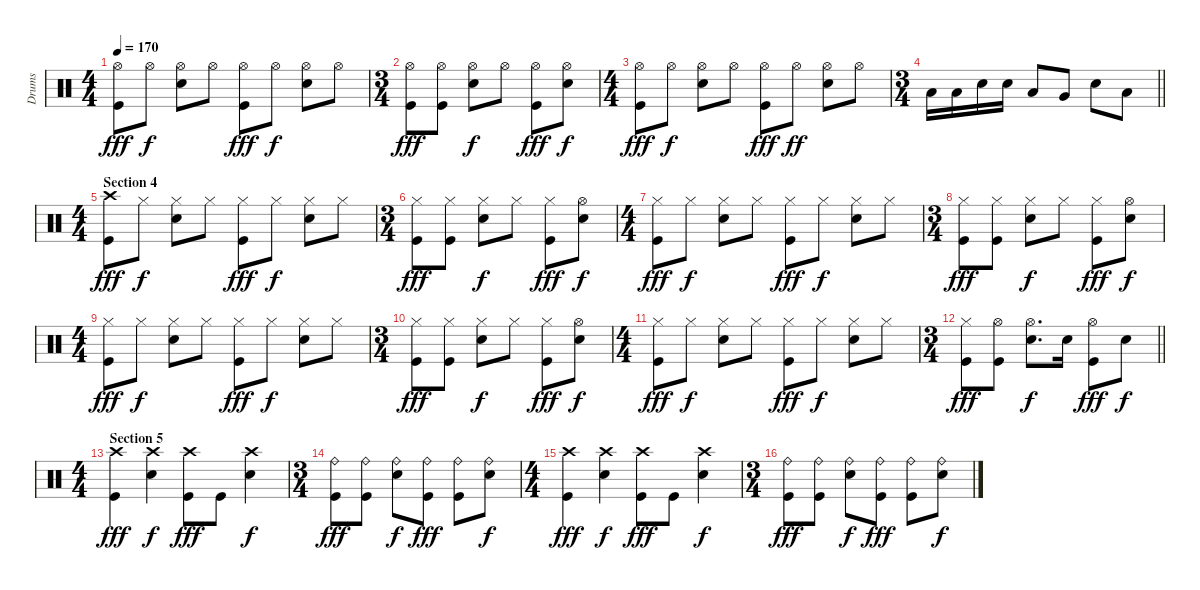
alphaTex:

\track ("Drums" "Drums") {instrument percussion}
\staff {score}
\articulation defaults
\ts (4 4)
\tempo 170
\clef neutral
\ks c
("Hi-Hat (open)" "Kick (hit)").8{dy fff} "Hi-Hat (open)".8{dy f} ("Hi-Hat (open)" "Snare (hit) 2").8 "Hi-Hat (open)".8 ("Hi-Hat (open)" "Kick (hit)").8{dy fff} "Hi-Hat (open)".8{dy f} ("Hi-Hat (open)" "Snare (hit) 2").8 "Hi-Hat (open)".8 |
\ts (3 4)
("Hi-Hat (open)" "Kick (hit)").8{dy fff} ("Hi-Hat (open)" "Kick (hit)").8 ("Hi-Hat (open)" "Snare (hit) 2").8{dy f} "Hi-Hat (open)".8 ("Hi-Hat (open)" "Kick (hit)").8{dy fff} ("Hi-Hat (open)" "Snare (hit) 2").8{dy f} |
\ts (4 4)
("Hi-Hat (open)" "Kick (hit)").8{dy fff} "Hi-Hat (open)".8{dy f} ("Hi-Hat (open)" "Snare (hit) 2").8 "Hi-Hat (open)".8 ("Hi-Hat (open)" "Kick (hit)").8{dy fff} "Hi-Hat (open)".8{dy ff} ("Hi-Hat (open)" "Snare (hit) 2").8 "Hi-Hat (open)".8 |
\ts (3 4)
\barLineRight lightlight "Low Tom (hit)".16 "Low Tom (hit)".16 "Snare (hit) 2".16 "Snare (hit) 2".16 "Low Tom (hit)".8 "Very Low Tom (hit)".8 "Snare (hit) 2".8 "Low Floor Tom (hit)".8
|
\ts (4 4)
\section ("" "Section 4")
("Crash high (hit)" "Kick (hit)").8{dy fff} "Hi-Hat (closed)".8{dy f} ("Hi-Hat (closed)" "Snare (hit) 2").8 "Hi-Hat (closed)".8 ("Hi-Hat (closed)" "Kick (hit)").8{dy fff} "Hi-Hat (closed)".8{dy f} ("Hi-Hat (closed)" "Snare (hit) 2").8 "Hi-Hat (closed)".8 |
\ts (3 4)
("Hi-Hat (closed)" "Kick (hit)").8{dy fff} ("Hi-Hat (closed)" "Kick (hit)").8 ("Hi-Hat (closed)" "Snare (hit) 2").8{dy f} "Hi-Hat (closed)".8 ("Hi-Hat (closed)" "Kick (hit)").8{dy fff} ("Hi-Hat (open)" "Snare (hit) 2").8{dy f} |
\ts (4 4)
("Hi-Hat (closed)" "Kick (hit)").8{dy fff} "Hi-Hat (closed)".8{dy f} ("Hi-Hat (closed)" "Snare (hit) 2").8 "Hi-Hat (closed)".8 ("Hi-Hat (closed)" "Kick (hit)").8{dy fff} "Hi-Hat (closed)".8{dy f} ("Hi-Hat (closed)" "Snare (hit) 2").8 "Hi-Hat (closed)".8 |
\ts (3 4)
("Hi-Hat (closed)" "Kick (hit)").8{dy fff} ("Hi-Hat (closed)" "Kick (hit)").8 ("Hi-Hat (closed)" "Snare (hit) 2").8{dy f} "Hi-Hat (closed)".8 ("Hi-Hat (closed)" "Kick (hit)").8{dy fff} ("Hi-Hat (open)" "Snare (hit) 2").8{dy f} |
\ts (4 4)
("Hi-Hat (closed)" "Kick (hit)").8{dy fff} "Hi-Hat (closed)".8{dy f} ("Hi-Hat (closed)" "Snare (hit) 2").8 "Hi-Hat (closed)".8 ("Hi-Hat (closed)" "Kick (hit)").8{dy fff} "Hi-Hat (closed)".8{dy f} ("Hi-Hat (closed)" "Snare (hit) 2").8 "Hi-Hat (closed)".8 |
\ts (3 4)
("Hi-Hat (closed)" "Kick (hit)").8{dy fff} ("Hi-Hat (closed)" "Kick (hit)").8 ("Hi-Hat (closed)" "Snare (hit) 2").8{dy f} "Hi-Hat (closed)".8 ("Hi-Hat (closed)" "Kick (hit)").8{dy fff} ("Hi-Hat (open)" "Snare (hit) 2").8{dy f} |
\ts (4 4)
("Hi-Hat (closed)" "Kick (hit)").8{dy fff} "Hi-Hat (closed)".8{dy f} ("Hi-Hat (closed)" "Snare (hit) 2").8 "Hi-Hat (closed)".8 ("Hi-Hat (closed)" "Kick (hit)").8{dy fff} "Hi-Hat (closed)".8{dy f} ("Hi-Hat (closed)" "Snare (hit) 2").8 "Hi-Hat (closed)".8 |
\ts (3 4)
\barLineRight lightlight
("Hi-Hat (closed)" "Kick (hit)").8{dy fff} ("Hi-Hat (open)" "Kick (hit)").8 ("Hi-Hat (open)" "Snare (hit) 2").8{d dy f} "Snare (hit) 2".16 ("Hi-Hat (open)" "Kick (hit)").8{dy fff} "Snare (hit) 2".8{dy f} |
\ts (4 4)
\section ("" "Section 5")
("Crash high (hit)" "Kick (hit)").4{dy fff} ("Crash high (hit)" "Snare (hit) 2").4{dy f} ("Crash high (hit)" "Kick (hit)").8{dy fff} "Kick (hit)".8 ("Crash high (hit)" "Snare (hit) 2").4{dy f} |
\ts (3 4)
("Ride (bell)" "Kick (hit)").8{dy fff} ("Ride (bell)" "Kick (hit)").8 ("Ride (bell)" "Snare (hit) 2").8{dy f} ("Ride (bell)" "Kick (hit)").8{dy fff} ("Ride (bell)" "Kick (hit)").8 ("Ride (bell)" "Snare (hit) 2").8{dy f} |
\ts (4 4)
("Crash high (hit)" "Kick (hit)").4{dy fff} ("Crash high (hit)" "Snare (hit) 2").4{dy f} ("Crash high (hit)" "Kick (hit)").8{dy fff} "Kick (hit)".8 ("Crash high (hit)" "Snare (hit) 2").4{dy f} |
\ts (3 4)
("Ride (bell)" "Kick (hit)").8{dy fff} ("Ride (bell)" "Kick (hit)").8 ("Ride (bell)" "Snare (hit) 2").8{dy f} ("Ride (bell)" "Kick (hit)").8{dy fff} ("Ride (bell)" "Kick (hit)").8 ("Ride (bell)" "Snare (hit) 2").8{dy f}
